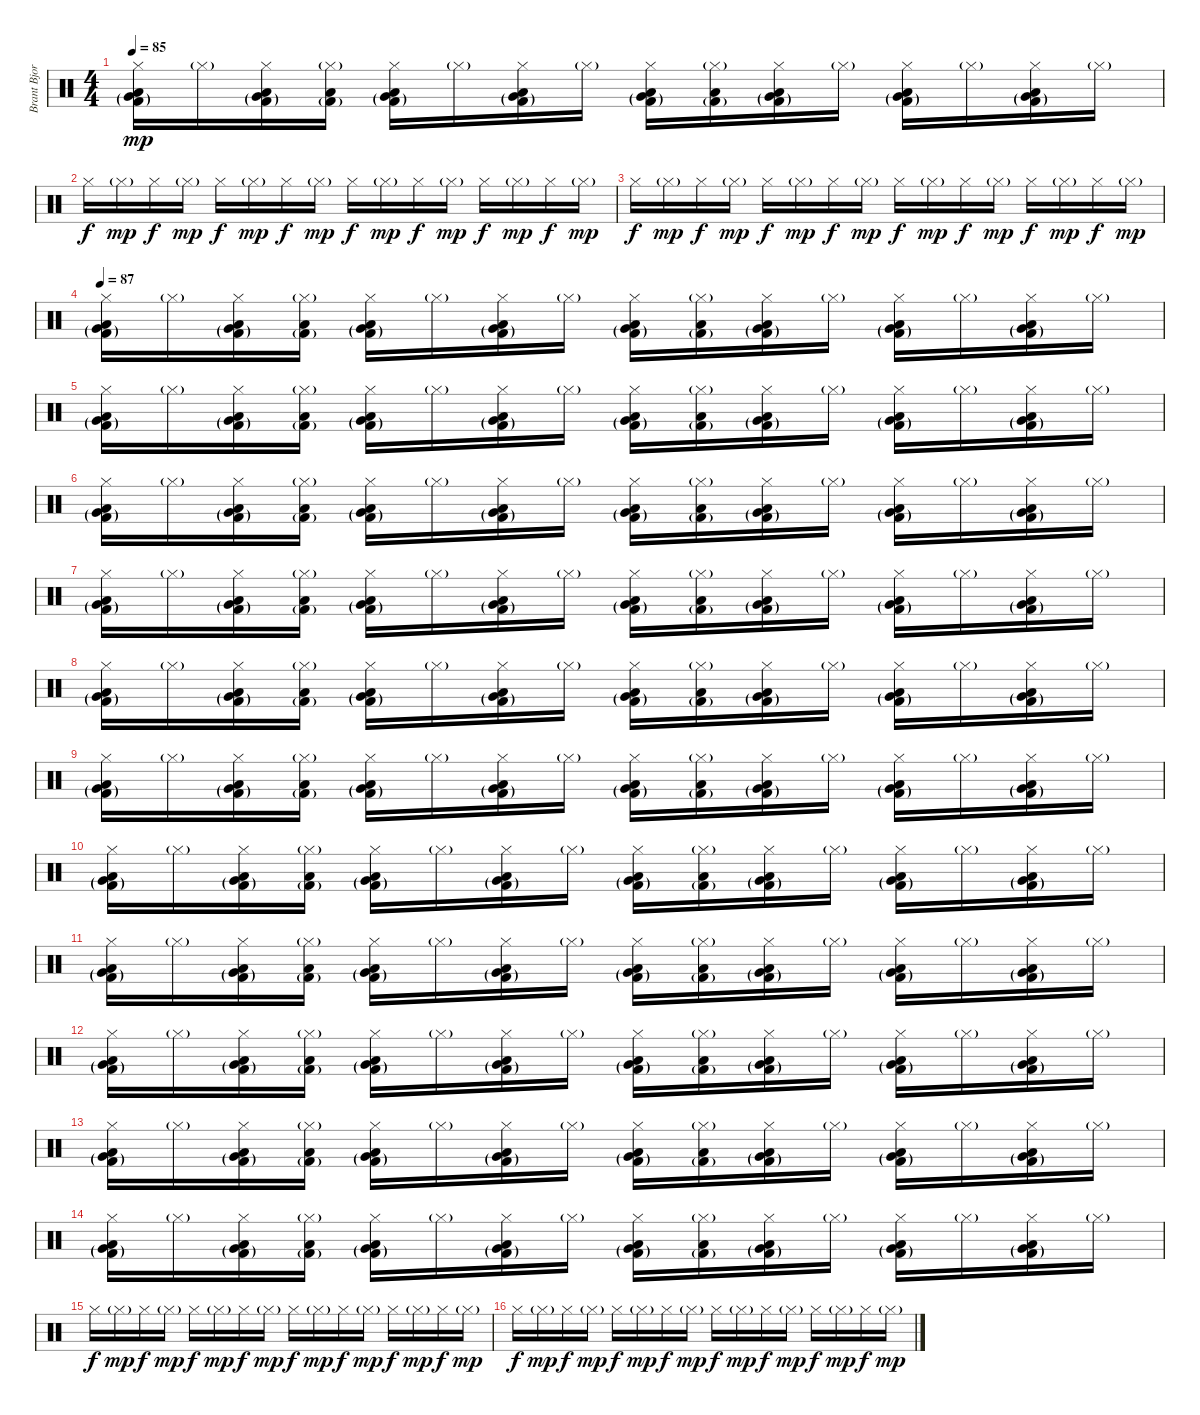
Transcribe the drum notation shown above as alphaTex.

\track ("Brant Bjork" "Brant Bjor") {instrument percussion}
\staff {score}
\articulation defaults
\ts (4 4)
\tempo 85
\clef neutral
\ks c
("Very Low Tom (hit)"{g} "Low Tom (hit)" "Kick (hit) 2"{g} "Hi-Hat (closed)").16{dy mp} "Hi-Hat (closed)"{g}.16 ("Very Low Tom (hit)"{g} "Low Tom (hit)" "Kick (hit) 2"{g} "Hi-Hat (closed)").16 ("Low Tom (hit)" "Kick (hit) 2"{g} "Hi-Hat (closed)"{g}).16 ("Very Low Tom (hit)"{g} "Low Tom (hit)" "Kick (hit) 2"{g} "Hi-Hat (closed)").16 "Hi-Hat (closed)"{g}.16 ("Very Low Tom (hit)"{g} "Low Tom (hit)" "Kick (hit) 2"{g} "Hi-Hat (closed)").16 "Hi-Hat (closed)"{g}.16 ("Very Low Tom (hit)"{g} "Low Tom (hit)" "Kick (hit) 2"{g} "Hi-Hat (closed)").16 ("Low Tom (hit)" "Kick (hit) 2"{g} "Hi-Hat (closed)"{g}).16 ("Very Low Tom (hit)"{g} "Low Tom (hit)" "Kick (hit) 2"{g} "Hi-Hat (closed)").16 "Hi-Hat (closed)"{g}.16 ("Very Low Tom (hit)"{g} "Low Tom (hit)" "Kick (hit) 2"{g} "Hi-Hat (closed)").16 "Hi-Hat (closed)"{g}.16 ("Very Low Tom (hit)"{g} "Low Tom (hit)" "Kick (hit) 2"{g} "Hi-Hat (closed)").16 "Hi-Hat (closed)"{g}.16 |
"Hi-Hat (closed)".16{dy f} "Hi-Hat (closed)"{g}.16{dy mp} "Hi-Hat (closed)".16{dy f} "Hi-Hat (closed)"{g}.16{dy mp} "Hi-Hat (closed)".16{dy f} "Hi-Hat (closed)"{g}.16{dy mp} "Hi-Hat (closed)".16{dy f} "Hi-Hat (closed)"{g}.16{dy mp} "Hi-Hat (closed)".16{dy f} "Hi-Hat (closed)"{g}.16{dy mp} "Hi-Hat (closed)".16{dy f} "Hi-Hat (closed)"{g}.16{dy mp} "Hi-Hat (closed)".16{dy f} "Hi-Hat (closed)"{g}.16{dy mp} "Hi-Hat (closed)".16{dy f} "Hi-Hat (closed)"{g}.16{dy mp} |
"Hi-Hat (closed)".16{dy f} "Hi-Hat (closed)"{g}.16{dy mp} "Hi-Hat (closed)".16{dy f} "Hi-Hat (closed)"{g}.16{dy mp} "Hi-Hat (closed)".16{dy f} "Hi-Hat (closed)"{g}.16{dy mp} "Hi-Hat (closed)".16{dy f} "Hi-Hat (closed)"{g}.16{dy mp} "Hi-Hat (closed)".16{dy f} "Hi-Hat (closed)"{g}.16{dy mp} "Hi-Hat (closed)".16{dy f} "Hi-Hat (closed)"{g}.16{dy mp} "Hi-Hat (closed)".16{dy f} "Hi-Hat (closed)"{g}.16{dy mp} "Hi-Hat (closed)".16{dy f} "Hi-Hat (closed)"{g}.16{dy mp} |
\tempo 87
("Very Low Tom (hit)"{g} "Low Tom (hit)" "Kick (hit) 2"{g} "Hi-Hat (closed)").16 "Hi-Hat (closed)"{g}.16 ("Very Low Tom (hit)"{g} "Low Tom (hit)" "Kick (hit) 2"{g} "Hi-Hat (closed)").16 ("Low Tom (hit)" "Kick (hit) 2"{g} "Hi-Hat (closed)"{g}).16 ("Very Low Tom (hit)"{g} "Low Tom (hit)" "Kick (hit) 2"{g} "Hi-Hat (closed)").16 "Hi-Hat (closed)"{g}.16 ("Very Low Tom (hit)"{g} "Low Tom (hit)" "Kick (hit) 2"{g} "Hi-Hat (closed)").16 "Hi-Hat (closed)"{g}.16 ("Very Low Tom (hit)"{g} "Low Tom (hit)" "Kick (hit) 2"{g} "Hi-Hat (closed)").16 ("Low Tom (hit)" "Kick (hit) 2"{g} "Hi-Hat (closed)"{g}).16 ("Very Low Tom (hit)"{g} "Low Tom (hit)" "Kick (hit) 2"{g} "Hi-Hat (closed)").16 "Hi-Hat (closed)"{g}.16 ("Very Low Tom (hit)"{g} "Low Tom (hit)" "Kick (hit) 2"{g} "Hi-Hat (closed)").16 "Hi-Hat (closed)"{g}.16 ("Very Low Tom (hit)"{g} "Low Tom (hit)" "Kick (hit) 2"{g} "Hi-Hat (closed)").16 "Hi-Hat (closed)"{g}.16 |
("Very Low Tom (hit)"{g} "Low Tom (hit)" "Kick (hit) 2"{g} "Hi-Hat (closed)").16 "Hi-Hat (closed)"{g}.16 ("Very Low Tom (hit)"{g} "Low Tom (hit)" "Kick (hit) 2"{g} "Hi-Hat (closed)").16 ("Low Tom (hit)" "Kick (hit) 2"{g} "Hi-Hat (closed)"{g}).16 ("Very Low Tom (hit)"{g} "Low Tom (hit)" "Kick (hit) 2"{g} "Hi-Hat (closed)").16 "Hi-Hat (closed)"{g}.16 ("Very Low Tom (hit)"{g} "Low Tom (hit)" "Kick (hit) 2"{g} "Hi-Hat (closed)").16 "Hi-Hat (closed)"{g}.16 ("Very Low Tom (hit)"{g} "Low Tom (hit)" "Kick (hit) 2"{g} "Hi-Hat (closed)").16 ("Low Tom (hit)" "Kick (hit) 2"{g} "Hi-Hat (closed)"{g}).16 ("Very Low Tom (hit)"{g} "Low Tom (hit)" "Kick (hit) 2"{g} "Hi-Hat (closed)").16 "Hi-Hat (closed)"{g}.16 ("Very Low Tom (hit)"{g} "Low Tom (hit)" "Kick (hit) 2"{g} "Hi-Hat (closed)").16 "Hi-Hat (closed)"{g}.16 ("Very Low Tom (hit)"{g} "Low Tom (hit)" "Kick (hit) 2"{g} "Hi-Hat (closed)").16 "Hi-Hat (closed)"{g}.16 |
("Very Low Tom (hit)"{g} "Low Tom (hit)" "Kick (hit) 2"{g} "Hi-Hat (closed)").16 "Hi-Hat (closed)"{g}.16 ("Very Low Tom (hit)"{g} "Low Tom (hit)" "Kick (hit) 2"{g} "Hi-Hat (closed)").16 ("Low Tom (hit)" "Kick (hit) 2"{g} "Hi-Hat (closed)"{g}).16 ("Very Low Tom (hit)"{g} "Low Tom (hit)" "Kick (hit) 2"{g} "Hi-Hat (closed)").16 "Hi-Hat (closed)"{g}.16 ("Very Low Tom (hit)"{g} "Low Tom (hit)" "Kick (hit) 2"{g} "Hi-Hat (closed)").16 "Hi-Hat (closed)"{g}.16 ("Very Low Tom (hit)"{g} "Low Tom (hit)" "Kick (hit) 2"{g} "Hi-Hat (closed)").16 ("Low Tom (hit)" "Kick (hit) 2"{g} "Hi-Hat (closed)"{g}).16 ("Very Low Tom (hit)"{g} "Low Tom (hit)" "Kick (hit) 2"{g} "Hi-Hat (closed)").16 "Hi-Hat (closed)"{g}.16 ("Very Low Tom (hit)"{g} "Low Tom (hit)" "Kick (hit) 2"{g} "Hi-Hat (closed)").16 "Hi-Hat (closed)"{g}.16 ("Very Low Tom (hit)"{g} "Low Tom (hit)" "Kick (hit) 2"{g} "Hi-Hat (closed)").16 "Hi-Hat (closed)"{g}.16 |
("Very Low Tom (hit)"{g} "Low Tom (hit)" "Kick (hit) 2"{g} "Hi-Hat (closed)").16 "Hi-Hat (closed)"{g}.16 ("Very Low Tom (hit)"{g} "Low Tom (hit)" "Kick (hit) 2"{g} "Hi-Hat (closed)").16 ("Low Tom (hit)" "Kick (hit) 2"{g} "Hi-Hat (closed)"{g}).16 ("Very Low Tom (hit)"{g} "Low Tom (hit)" "Kick (hit) 2"{g} "Hi-Hat (closed)").16 "Hi-Hat (closed)"{g}.16 ("Very Low Tom (hit)"{g} "Low Tom (hit)" "Kick (hit) 2"{g} "Hi-Hat (closed)").16 "Hi-Hat (closed)"{g}.16 ("Very Low Tom (hit)"{g} "Low Tom (hit)" "Kick (hit) 2"{g} "Hi-Hat (closed)").16 ("Low Tom (hit)" "Kick (hit) 2"{g} "Hi-Hat (closed)"{g}).16 ("Very Low Tom (hit)"{g} "Low Tom (hit)" "Kick (hit) 2"{g} "Hi-Hat (closed)").16 "Hi-Hat (closed)"{g}.16 ("Very Low Tom (hit)"{g} "Low Tom (hit)" "Kick (hit) 2"{g} "Hi-Hat (closed)").16 "Hi-Hat (closed)"{g}.16 ("Very Low Tom (hit)"{g} "Low Tom (hit)" "Kick (hit) 2"{g} "Hi-Hat (closed)").16 "Hi-Hat (closed)"{g}.16 |
("Very Low Tom (hit)"{g} "Low Tom (hit)" "Kick (hit) 2"{g} "Hi-Hat (closed)").16 "Hi-Hat (closed)"{g}.16 ("Very Low Tom (hit)"{g} "Low Tom (hit)" "Kick (hit) 2"{g} "Hi-Hat (closed)").16 ("Low Tom (hit)" "Kick (hit) 2"{g} "Hi-Hat (closed)"{g}).16 ("Very Low Tom (hit)"{g} "Low Tom (hit)" "Kick (hit) 2"{g} "Hi-Hat (closed)").16 "Hi-Hat (closed)"{g}.16 ("Very Low Tom (hit)"{g} "Low Tom (hit)" "Kick (hit) 2"{g} "Hi-Hat (closed)").16 "Hi-Hat (closed)"{g}.16 ("Very Low Tom (hit)"{g} "Low Tom (hit)" "Kick (hit) 2"{g} "Hi-Hat (closed)").16 ("Low Tom (hit)" "Kick (hit) 2"{g} "Hi-Hat (closed)"{g}).16 ("Very Low Tom (hit)"{g} "Low Tom (hit)" "Kick (hit) 2"{g} "Hi-Hat (closed)").16 "Hi-Hat (closed)"{g}.16 ("Very Low Tom (hit)"{g} "Low Tom (hit)" "Kick (hit) 2"{g} "Hi-Hat (closed)").16 "Hi-Hat (closed)"{g}.16 ("Very Low Tom (hit)"{g} "Low Tom (hit)" "Kick (hit) 2"{g} "Hi-Hat (closed)").16 "Hi-Hat (closed)"{g}.16 |
("Very Low Tom (hit)"{g} "Low Tom (hit)" "Kick (hit) 2"{g} "Hi-Hat (closed)").16 "Hi-Hat (closed)"{g}.16 ("Very Low Tom (hit)"{g} "Low Tom (hit)" "Kick (hit) 2"{g} "Hi-Hat (closed)").16 ("Low Tom (hit)" "Kick (hit) 2"{g} "Hi-Hat (closed)"{g}).16 ("Very Low Tom (hit)"{g} "Low Tom (hit)" "Kick (hit) 2"{g} "Hi-Hat (closed)").16 "Hi-Hat (closed)"{g}.16 ("Very Low Tom (hit)"{g} "Low Tom (hit)" "Kick (hit) 2"{g} "Hi-Hat (closed)").16 "Hi-Hat (closed)"{g}.16 ("Very Low Tom (hit)"{g} "Low Tom (hit)" "Kick (hit) 2"{g} "Hi-Hat (closed)").16 ("Low Tom (hit)" "Kick (hit) 2"{g} "Hi-Hat (closed)"{g}).16 ("Very Low Tom (hit)"{g} "Low Tom (hit)" "Kick (hit) 2"{g} "Hi-Hat (closed)").16 "Hi-Hat (closed)"{g}.16 ("Very Low Tom (hit)"{g} "Low Tom (hit)" "Kick (hit) 2"{g} "Hi-Hat (closed)").16 "Hi-Hat (closed)"{g}.16 ("Very Low Tom (hit)"{g} "Low Tom (hit)" "Kick (hit) 2"{g} "Hi-Hat (closed)").16 "Hi-Hat (closed)"{g}.16 |
("Very Low Tom (hit)"{g} "Low Tom (hit)" "Kick (hit) 2"{g} "Hi-Hat (closed)").16 "Hi-Hat (closed)"{g}.16 ("Very Low Tom (hit)"{g} "Low Tom (hit)" "Kick (hit) 2"{g} "Hi-Hat (closed)").16 ("Low Tom (hit)" "Kick (hit) 2"{g} "Hi-Hat (closed)"{g}).16 ("Very Low Tom (hit)"{g} "Low Tom (hit)" "Kick (hit) 2"{g} "Hi-Hat (closed)").16 "Hi-Hat (closed)"{g}.16 ("Very Low Tom (hit)"{g} "Low Tom (hit)" "Kick (hit) 2"{g} "Hi-Hat (closed)").16 "Hi-Hat (closed)"{g}.16 ("Very Low Tom (hit)"{g} "Low Tom (hit)" "Kick (hit) 2"{g} "Hi-Hat (closed)").16 ("Low Tom (hit)" "Kick (hit) 2"{g} "Hi-Hat (closed)"{g}).16 ("Very Low Tom (hit)"{g} "Low Tom (hit)" "Kick (hit) 2"{g} "Hi-Hat (closed)").16 "Hi-Hat (closed)"{g}.16 ("Very Low Tom (hit)"{g} "Low Tom (hit)" "Kick (hit) 2"{g} "Hi-Hat (closed)").16 "Hi-Hat (closed)"{g}.16 ("Very Low Tom (hit)"{g} "Low Tom (hit)" "Kick (hit) 2"{g} "Hi-Hat (closed)").16 "Hi-Hat (closed)"{g}.16 |
("Very Low Tom (hit)"{g} "Low Tom (hit)" "Kick (hit) 2"{g} "Hi-Hat (closed)").16 "Hi-Hat (closed)"{g}.16 ("Very Low Tom (hit)"{g} "Low Tom (hit)" "Kick (hit) 2"{g} "Hi-Hat (closed)").16 ("Low Tom (hit)" "Kick (hit) 2"{g} "Hi-Hat (closed)"{g}).16 ("Very Low Tom (hit)"{g} "Low Tom (hit)" "Kick (hit) 2"{g} "Hi-Hat (closed)").16 "Hi-Hat (closed)"{g}.16 ("Very Low Tom (hit)"{g} "Low Tom (hit)" "Kick (hit) 2"{g} "Hi-Hat (closed)").16 "Hi-Hat (closed)"{g}.16 ("Very Low Tom (hit)"{g} "Low Tom (hit)" "Kick (hit) 2"{g} "Hi-Hat (closed)").16 ("Low Tom (hit)" "Kick (hit) 2"{g} "Hi-Hat (closed)"{g}).16 ("Very Low Tom (hit)"{g} "Low Tom (hit)" "Kick (hit) 2"{g} "Hi-Hat (closed)").16 "Hi-Hat (closed)"{g}.16 ("Very Low Tom (hit)"{g} "Low Tom (hit)" "Kick (hit) 2"{g} "Hi-Hat (closed)").16 "Hi-Hat (closed)"{g}.16 ("Very Low Tom (hit)"{g} "Low Tom (hit)" "Kick (hit) 2"{g} "Hi-Hat (closed)").16 "Hi-Hat (closed)"{g}.16 |
("Very Low Tom (hit)"{g} "Low Tom (hit)" "Kick (hit) 2"{g} "Hi-Hat (closed)").16 "Hi-Hat (closed)"{g}.16 ("Very Low Tom (hit)"{g} "Low Tom (hit)" "Kick (hit) 2"{g} "Hi-Hat (closed)").16 ("Low Tom (hit)" "Kick (hit) 2"{g} "Hi-Hat (closed)"{g}).16 ("Very Low Tom (hit)"{g} "Low Tom (hit)" "Kick (hit) 2"{g} "Hi-Hat (closed)").16 "Hi-Hat (closed)"{g}.16 ("Very Low Tom (hit)"{g} "Low Tom (hit)" "Kick (hit) 2"{g} "Hi-Hat (closed)").16 "Hi-Hat (closed)"{g}.16 ("Very Low Tom (hit)"{g} "Low Tom (hit)" "Kick (hit) 2"{g} "Hi-Hat (closed)").16 ("Low Tom (hit)" "Kick (hit) 2"{g} "Hi-Hat (closed)"{g}).16 ("Very Low Tom (hit)"{g} "Low Tom (hit)" "Kick (hit) 2"{g} "Hi-Hat (closed)").16 "Hi-Hat (closed)"{g}.16 ("Very Low Tom (hit)"{g} "Low Tom (hit)" "Kick (hit) 2"{g} "Hi-Hat (closed)").16 "Hi-Hat (closed)"{g}.16 ("Very Low Tom (hit)"{g} "Low Tom (hit)" "Kick (hit) 2"{g} "Hi-Hat (closed)").16 "Hi-Hat (closed)"{g}.16 |
("Very Low Tom (hit)"{g} "Low Tom (hit)" "Kick (hit) 2"{g} "Hi-Hat (closed)").16 "Hi-Hat (closed)"{g}.16 ("Very Low Tom (hit)"{g} "Low Tom (hit)" "Kick (hit) 2"{g} "Hi-Hat (closed)").16 ("Low Tom (hit)" "Kick (hit) 2"{g} "Hi-Hat (closed)"{g}).16 ("Very Low Tom (hit)"{g} "Low Tom (hit)" "Kick (hit) 2"{g} "Hi-Hat (closed)").16 "Hi-Hat (closed)"{g}.16 ("Very Low Tom (hit)"{g} "Low Tom (hit)" "Kick (hit) 2"{g} "Hi-Hat (closed)").16 "Hi-Hat (closed)"{g}.16 ("Very Low Tom (hit)"{g} "Low Tom (hit)" "Kick (hit) 2"{g} "Hi-Hat (closed)").16 ("Low Tom (hit)" "Kick (hit) 2"{g} "Hi-Hat (closed)"{g}).16 ("Very Low Tom (hit)"{g} "Low Tom (hit)" "Kick (hit) 2"{g} "Hi-Hat (closed)").16 "Hi-Hat (closed)"{g}.16 ("Very Low Tom (hit)"{g} "Low Tom (hit)" "Kick (hit) 2"{g} "Hi-Hat (closed)").16 "Hi-Hat (closed)"{g}.16 ("Very Low Tom (hit)"{g} "Low Tom (hit)" "Kick (hit) 2"{g} "Hi-Hat (closed)").16 "Hi-Hat (closed)"{g}.16 |
("Very Low Tom (hit)"{g} "Low Tom (hit)" "Kick (hit) 2"{g} "Hi-Hat (closed)").16 "Hi-Hat (closed)"{g}.16 ("Very Low Tom (hit)"{g} "Low Tom (hit)" "Kick (hit) 2"{g} "Hi-Hat (closed)").16 ("Low Tom (hit)" "Kick (hit) 2"{g} "Hi-Hat (closed)"{g}).16 ("Very Low Tom (hit)"{g} "Low Tom (hit)" "Kick (hit) 2"{g} "Hi-Hat (closed)").16 "Hi-Hat (closed)"{g}.16 ("Very Low Tom (hit)"{g} "Low Tom (hit)" "Kick (hit) 2"{g} "Hi-Hat (closed)").16 "Hi-Hat (closed)"{g}.16 ("Very Low Tom (hit)"{g} "Low Tom (hit)" "Kick (hit) 2"{g} "Hi-Hat (closed)").16 ("Low Tom (hit)" "Kick (hit) 2"{g} "Hi-Hat (closed)"{g}).16 ("Very Low Tom (hit)"{g} "Low Tom (hit)" "Kick (hit) 2"{g} "Hi-Hat (closed)").16 "Hi-Hat (closed)"{g}.16 ("Very Low Tom (hit)"{g} "Low Tom (hit)" "Kick (hit) 2"{g} "Hi-Hat (closed)").16 "Hi-Hat (closed)"{g}.16 ("Very Low Tom (hit)"{g} "Low Tom (hit)" "Kick (hit) 2"{g} "Hi-Hat (closed)").16 "Hi-Hat (closed)"{g}.16 |
"Hi-Hat (closed)".16{dy f} "Hi-Hat (closed)"{g}.16{dy mp} "Hi-Hat (closed)".16{dy f} "Hi-Hat (closed)"{g}.16{dy mp} "Hi-Hat (closed)".16{dy f} "Hi-Hat (closed)"{g}.16{dy mp} "Hi-Hat (closed)".16{dy f} "Hi-Hat (closed)"{g}.16{dy mp} "Hi-Hat (closed)".16{dy f} "Hi-Hat (closed)"{g}.16{dy mp} "Hi-Hat (closed)".16{dy f} "Hi-Hat (closed)"{g}.16{dy mp} "Hi-Hat (closed)".16{dy f} "Hi-Hat (closed)"{g}.16{dy mp} "Hi-Hat (closed)".16{dy f} "Hi-Hat (closed)"{g}.16{dy mp} |
"Hi-Hat (closed)".16{dy f} "Hi-Hat (closed)"{g}.16{dy mp} "Hi-Hat (closed)".16{dy f} "Hi-Hat (closed)"{g}.16{dy mp} "Hi-Hat (closed)".16{dy f} "Hi-Hat (closed)"{g}.16{dy mp} "Hi-Hat (closed)".16{dy f} "Hi-Hat (closed)"{g}.16{dy mp} "Hi-Hat (closed)".16{dy f} "Hi-Hat (closed)"{g}.16{dy mp} "Hi-Hat (closed)".16{dy f} "Hi-Hat (closed)"{g}.16{dy mp} "Hi-Hat (closed)".16{dy f} "Hi-Hat (closed)"{g}.16{dy mp} "Hi-Hat (closed)".16{dy f} "Hi-Hat (closed)"{g}.16{dy mp}
